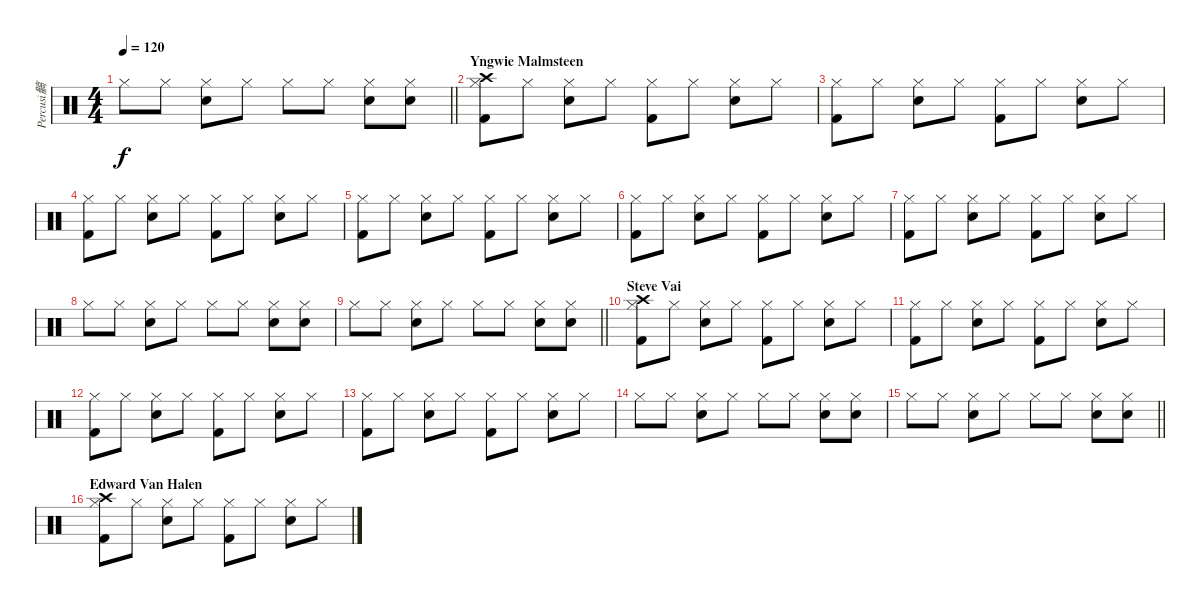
\track ("Percusi髇" "Percusi髇") {instrument percussion}
\staff {score}
\articulation defaults
\ts (4 4)
\tempo 120
\clef neutral
\barLineRight lightlight
\ks c "Hi-Hat (closed)".8{dy f} "Hi-Hat (closed)".8
("Electric Snare (hit)" "Hi-Hat (closed)").8 "Hi-Hat (closed)".8 "Hi-Hat (closed)".8 "Hi-Hat (closed)".8 ("Electric Snare (hit)" "Hi-Hat (closed)").8 ("Electric Snare (hit)" "Hi-Hat (closed)").8 |
\section ("" "Yngwie Malmsteen")
("Kick (hit) 2" "Hi-Hat (closed)" "Crash high (hit)").8 "Hi-Hat (closed)".8 ("Electric Snare (hit)" "Hi-Hat (closed)").8 "Hi-Hat (closed)".8 ("Kick (hit) 2" "Hi-Hat (closed)").8 "Hi-Hat (closed)".8 ("Electric Snare (hit)" "Hi-Hat (closed)").8 "Hi-Hat (closed)".8 |
("Kick (hit) 2" "Hi-Hat (closed)").8 "Hi-Hat (closed)".8 ("Electric Snare (hit)" "Hi-Hat (closed)").8 "Hi-Hat (closed)".8 ("Kick (hit) 2" "Hi-Hat (closed)").8 "Hi-Hat (closed)".8 ("Electric Snare (hit)" "Hi-Hat (closed)").8 "Hi-Hat (closed)".8 |
("Kick (hit) 2" "Hi-Hat (closed)").8 "Hi-Hat (closed)".8 ("Electric Snare (hit)" "Hi-Hat (closed)").8 "Hi-Hat (closed)".8 ("Kick (hit) 2" "Hi-Hat (closed)").8 "Hi-Hat (closed)".8 ("Electric Snare (hit)" "Hi-Hat (closed)").8 "Hi-Hat (closed)".8 |
("Kick (hit) 2" "Hi-Hat (closed)").8 "Hi-Hat (closed)".8 ("Electric Snare (hit)" "Hi-Hat (closed)").8 "Hi-Hat (closed)".8 ("Kick (hit) 2" "Hi-Hat (closed)").8 "Hi-Hat (closed)".8 ("Electric Snare (hit)" "Hi-Hat (closed)").8 "Hi-Hat (closed)".8 |
("Kick (hit) 2" "Hi-Hat (closed)").8 "Hi-Hat (closed)".8 ("Electric Snare (hit)" "Hi-Hat (closed)").8 "Hi-Hat (closed)".8 ("Kick (hit) 2" "Hi-Hat (closed)").8 "Hi-Hat (closed)".8 ("Electric Snare (hit)" "Hi-Hat (closed)").8 "Hi-Hat (closed)".8 |
("Kick (hit) 2" "Hi-Hat (closed)").8 "Hi-Hat (closed)".8 ("Electric Snare (hit)" "Hi-Hat (closed)").8 "Hi-Hat (closed)".8 ("Kick (hit) 2" "Hi-Hat (closed)").8 "Hi-Hat (closed)".8 ("Electric Snare (hit)" "Hi-Hat (closed)").8 "Hi-Hat (closed)".8 |
"Hi-Hat (closed)".8 "Hi-Hat (closed)".8 ("Electric Snare (hit)" "Hi-Hat (closed)").8 "Hi-Hat (closed)".8 "Hi-Hat (closed)".8 "Hi-Hat (closed)".8 ("Electric Snare (hit)" "Hi-Hat (closed)").8 ("Electric Snare (hit)" "Hi-Hat (closed)").8 |
\barLineRight lightlight "Hi-Hat (closed)".8 "Hi-Hat (closed)".8
("Electric Snare (hit)" "Hi-Hat (closed)").8 "Hi-Hat (closed)".8 "Hi-Hat (closed)".8 "Hi-Hat (closed)".8 ("Electric Snare (hit)" "Hi-Hat (closed)").8 ("Electric Snare (hit)" "Hi-Hat (closed)").8 |
\section ("" "Steve Vai")
("Kick (hit) 2" "Hi-Hat (closed)" "Crash high (hit)").8 "Hi-Hat (closed)".8 ("Electric Snare (hit)" "Hi-Hat (closed)").8 "Hi-Hat (closed)".8 ("Kick (hit) 2" "Hi-Hat (closed)").8 "Hi-Hat (closed)".8 ("Electric Snare (hit)" "Hi-Hat (closed)").8 "Hi-Hat (closed)".8 |
("Kick (hit) 2" "Hi-Hat (closed)").8 "Hi-Hat (closed)".8 ("Electric Snare (hit)" "Hi-Hat (closed)").8 "Hi-Hat (closed)".8 ("Kick (hit) 2" "Hi-Hat (closed)").8 "Hi-Hat (closed)".8 ("Electric Snare (hit)" "Hi-Hat (closed)").8 "Hi-Hat (closed)".8 |
("Kick (hit) 2" "Hi-Hat (closed)").8 "Hi-Hat (closed)".8 ("Electric Snare (hit)" "Hi-Hat (closed)").8 "Hi-Hat (closed)".8 ("Kick (hit) 2" "Hi-Hat (closed)").8 "Hi-Hat (closed)".8 ("Electric Snare (hit)" "Hi-Hat (closed)").8 "Hi-Hat (closed)".8 |
("Kick (hit) 2" "Hi-Hat (closed)").8 "Hi-Hat (closed)".8 ("Electric Snare (hit)" "Hi-Hat (closed)").8 "Hi-Hat (closed)".8 ("Kick (hit) 2" "Hi-Hat (closed)").8 "Hi-Hat (closed)".8 ("Electric Snare (hit)" "Hi-Hat (closed)").8 "Hi-Hat (closed)".8 |
"Hi-Hat (closed)".8 "Hi-Hat (closed)".8 ("Electric Snare (hit)" "Hi-Hat (closed)").8 "Hi-Hat (closed)".8 "Hi-Hat (closed)".8 "Hi-Hat (closed)".8 ("Electric Snare (hit)" "Hi-Hat (closed)").8 ("Electric Snare (hit)" "Hi-Hat (closed)").8 |
\barLineRight lightlight "Hi-Hat (closed)".8 "Hi-Hat (closed)".8
("Electric Snare (hit)" "Hi-Hat (closed)").8 "Hi-Hat (closed)".8 "Hi-Hat (closed)".8 "Hi-Hat (closed)".8 ("Electric Snare (hit)" "Hi-Hat (closed)").8 ("Electric Snare (hit)" "Hi-Hat (closed)").8 |
\section ("" "Edward Van Halen")
("Kick (hit) 2" "Hi-Hat (closed)" "Crash high (hit)").8 "Hi-Hat (closed)".8 ("Electric Snare (hit)" "Hi-Hat (closed)").8 "Hi-Hat (closed)".8 ("Kick (hit) 2" "Hi-Hat (closed)").8 "Hi-Hat (closed)".8 ("Electric Snare (hit)" "Hi-Hat (closed)").8 "Hi-Hat (closed)".8
